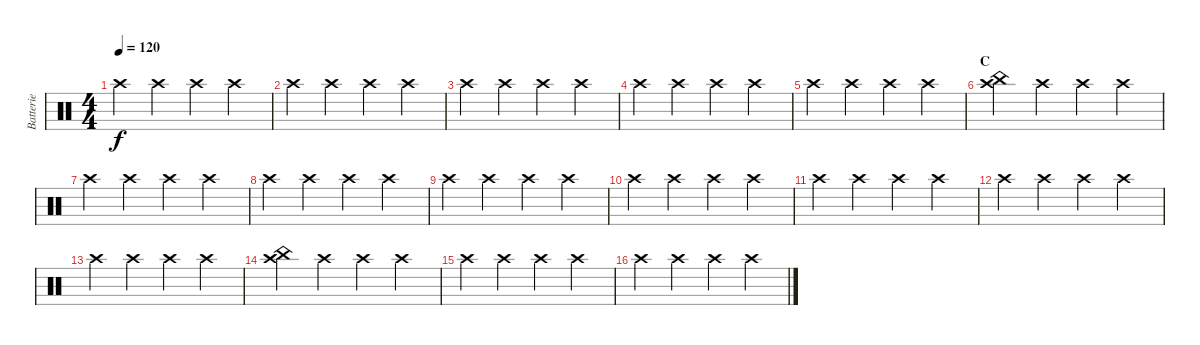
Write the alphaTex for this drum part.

\track ("Batterie" "Batterie") {instrument percussion}
\staff {score}
\articulation defaults
\ts (4 4)
\tempo 120
\clef neutral
\ks c "Crash high (hit)".4{dy f} "Crash high (hit)".4 "Crash high (hit)".4 "Crash high (hit)".4
|
"Crash high (hit)".4 "Crash high (hit)".4 "Crash high (hit)".4 "Crash high (hit)".4 |
"Crash high (hit)".4 "Crash high (hit)".4 "Crash high (hit)".4 "Crash high (hit)".4 |
"Crash high (hit)".4 "Crash high (hit)".4 "Crash high (hit)".4 "Crash high (hit)".4 |
"Crash high (hit)".4 "Crash high (hit)".4 "Crash high (hit)".4 "Crash high (hit)".4 |
\section ("" "C")
("China (hit)" "Crash high (hit)").4 "Crash high (hit)".4 "Crash high (hit)".4 "Crash high (hit)".4 |
"Crash high (hit)".4 "Crash high (hit)".4 "Crash high (hit)".4 "Crash high (hit)".4 |
"Crash high (hit)".4 "Crash high (hit)".4 "Crash high (hit)".4 "Crash high (hit)".4 |
"Crash high (hit)".4 "Crash high (hit)".4 "Crash high (hit)".4 "Crash high (hit)".4 |
"Crash high (hit)".4 "Crash high (hit)".4 "Crash high (hit)".4 "Crash high (hit)".4 |
"Crash high (hit)".4 "Crash high (hit)".4 "Crash high (hit)".4 "Crash high (hit)".4 |
"Crash high (hit)".4 "Crash high (hit)".4 "Crash high (hit)".4 "Crash high (hit)".4 |
"Crash high (hit)".4 "Crash high (hit)".4 "Crash high (hit)".4 "Crash high (hit)".4 |
("China (hit)" "Crash high (hit)").4 "Crash high (hit)".4 "Crash high (hit)".4 "Crash high (hit)".4 |
"Crash high (hit)".4 "Crash high (hit)".4 "Crash high (hit)".4 "Crash high (hit)".4 |
"Crash high (hit)".4 "Crash high (hit)".4 "Crash high (hit)".4 "Crash high (hit)".4
